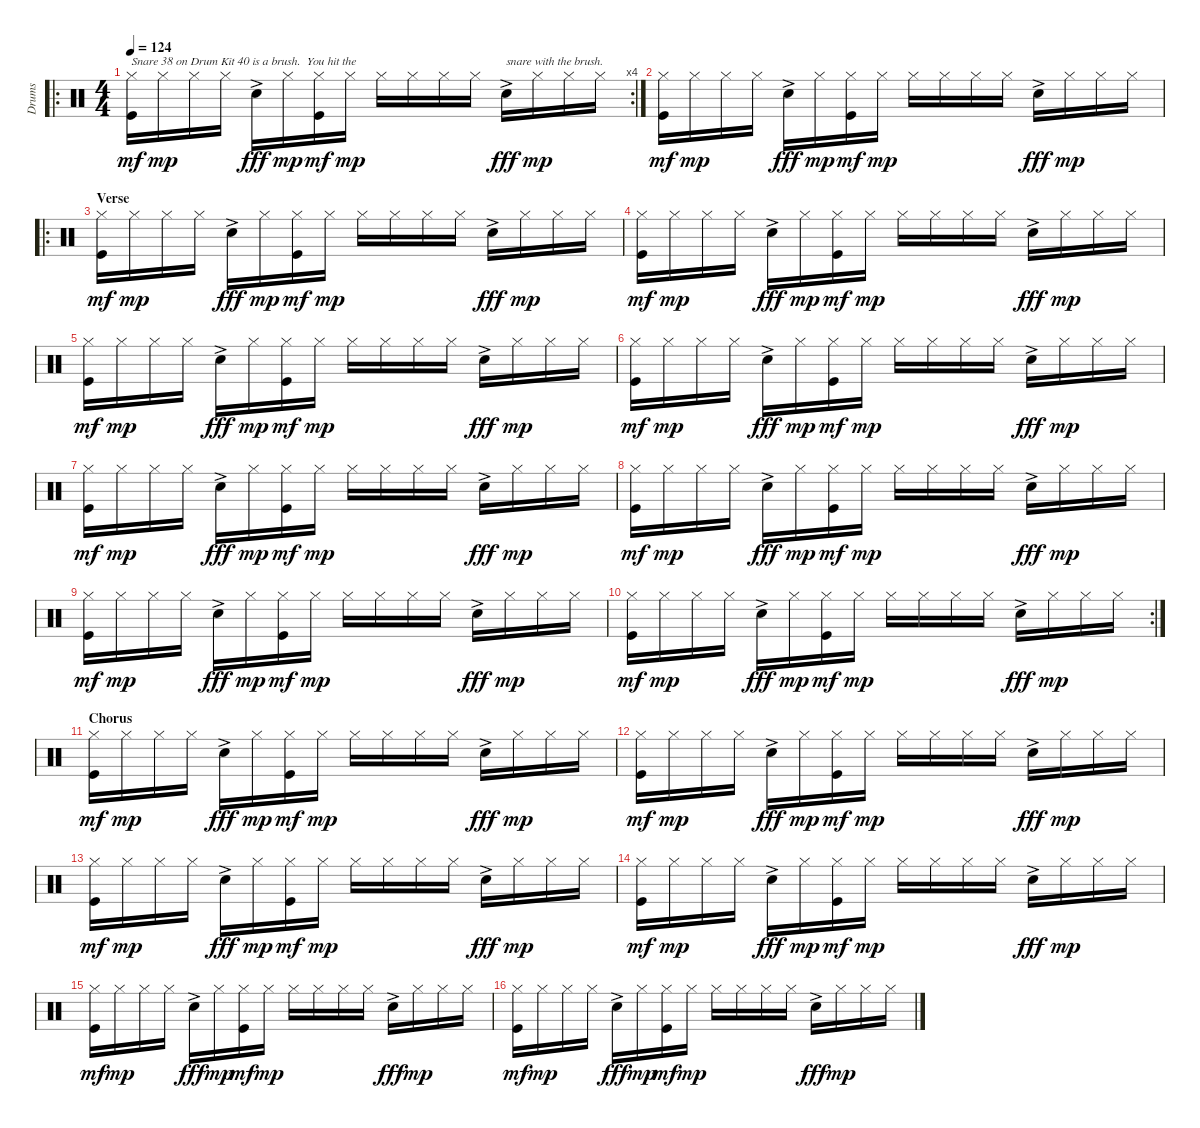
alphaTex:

\track ("Drums" "Drums") {instrument percussion}
\staff {score}
\articulation defaults
\ro
\rc 4
\ts (4 4)
\tempo 124
\clef neutral
\ks c
("Hi-Hat (closed)" "Kick (hit)").16{txt "Snare 38 on Drum Kit 40 is a brush.  You hit the " dy mf} "Hi-Hat (closed)".16{dy mp} "Hi-Hat (closed)".16 "Hi-Hat (closed)".16 "Snare (hit) 2"{ac}.16{dy fff} "Hi-Hat (closed)".16{dy mp} ("Hi-Hat (closed)" "Kick (hit)").16{dy mf} "Hi-Hat (closed)".16{dy mp} "Hi-Hat (closed)".16 "Hi-Hat (closed)".16 "Hi-Hat (closed)".16 "Hi-Hat (closed)".16 "Snare (hit) 2"{ac}.16{txt "snare with the brush." dy fff} "Hi-Hat (closed)".16{dy mp} "Hi-Hat (closed)".16 "Hi-Hat (closed)".16 |
("Hi-Hat (closed)" "Kick (hit)").16{dy mf} "Hi-Hat (closed)".16{dy mp} "Hi-Hat (closed)".16 "Hi-Hat (closed)".16 "Snare (hit) 2"{ac}.16{dy fff} "Hi-Hat (closed)".16{dy mp} ("Hi-Hat (closed)" "Kick (hit)").16{dy mf} "Hi-Hat (closed)".16{dy mp} "Hi-Hat (closed)".16 "Hi-Hat (closed)".16 "Hi-Hat (closed)".16 "Hi-Hat (closed)".16 "Snare (hit) 2"{ac}.16{dy fff} "Hi-Hat (closed)".16{dy mp} "Hi-Hat (closed)".16 "Hi-Hat (closed)".16 |
\ro
\section ("" "Verse")
("Hi-Hat (closed)" "Kick (hit)").16{dy mf} "Hi-Hat (closed)".16{dy mp} "Hi-Hat (closed)".16 "Hi-Hat (closed)".16 "Snare (hit) 2"{ac}.16{dy fff} "Hi-Hat (closed)".16{dy mp} ("Hi-Hat (closed)" "Kick (hit)").16{dy mf} "Hi-Hat (closed)".16{dy mp} "Hi-Hat (closed)".16 "Hi-Hat (closed)".16 "Hi-Hat (closed)".16 "Hi-Hat (closed)".16 "Snare (hit) 2"{ac}.16{dy fff} "Hi-Hat (closed)".16{dy mp} "Hi-Hat (closed)".16 "Hi-Hat (closed)".16 |
("Hi-Hat (closed)" "Kick (hit)").16{dy mf} "Hi-Hat (closed)".16{dy mp} "Hi-Hat (closed)".16 "Hi-Hat (closed)".16 "Snare (hit) 2"{ac}.16{dy fff} "Hi-Hat (closed)".16{dy mp} ("Hi-Hat (closed)" "Kick (hit)").16{dy mf} "Hi-Hat (closed)".16{dy mp} "Hi-Hat (closed)".16 "Hi-Hat (closed)".16 "Hi-Hat (closed)".16 "Hi-Hat (closed)".16 "Snare (hit) 2"{ac}.16{dy fff} "Hi-Hat (closed)".16{dy mp} "Hi-Hat (closed)".16 "Hi-Hat (closed)".16 |
("Hi-Hat (closed)" "Kick (hit)").16{dy mf} "Hi-Hat (closed)".16{dy mp} "Hi-Hat (closed)".16 "Hi-Hat (closed)".16 "Snare (hit) 2"{ac}.16{dy fff} "Hi-Hat (closed)".16{dy mp} ("Hi-Hat (closed)" "Kick (hit)").16{dy mf} "Hi-Hat (closed)".16{dy mp} "Hi-Hat (closed)".16 "Hi-Hat (closed)".16 "Hi-Hat (closed)".16 "Hi-Hat (closed)".16 "Snare (hit) 2"{ac}.16{dy fff} "Hi-Hat (closed)".16{dy mp} "Hi-Hat (closed)".16 "Hi-Hat (closed)".16 |
("Hi-Hat (closed)" "Kick (hit)").16{dy mf} "Hi-Hat (closed)".16{dy mp} "Hi-Hat (closed)".16 "Hi-Hat (closed)".16 "Snare (hit) 2"{ac}.16{dy fff} "Hi-Hat (closed)".16{dy mp} ("Hi-Hat (closed)" "Kick (hit)").16{dy mf} "Hi-Hat (closed)".16{dy mp} "Hi-Hat (closed)".16 "Hi-Hat (closed)".16 "Hi-Hat (closed)".16 "Hi-Hat (closed)".16 "Snare (hit) 2"{ac}.16{dy fff} "Hi-Hat (closed)".16{dy mp} "Hi-Hat (closed)".16 "Hi-Hat (closed)".16 |
("Hi-Hat (closed)" "Kick (hit)").16{dy mf} "Hi-Hat (closed)".16{dy mp} "Hi-Hat (closed)".16 "Hi-Hat (closed)".16 "Snare (hit) 2"{ac}.16{dy fff} "Hi-Hat (closed)".16{dy mp} ("Hi-Hat (closed)" "Kick (hit)").16{dy mf} "Hi-Hat (closed)".16{dy mp} "Hi-Hat (closed)".16 "Hi-Hat (closed)".16 "Hi-Hat (closed)".16 "Hi-Hat (closed)".16 "Snare (hit) 2"{ac}.16{dy fff} "Hi-Hat (closed)".16{dy mp} "Hi-Hat (closed)".16 "Hi-Hat (closed)".16 |
("Hi-Hat (closed)" "Kick (hit)").16{dy mf} "Hi-Hat (closed)".16{dy mp} "Hi-Hat (closed)".16 "Hi-Hat (closed)".16 "Snare (hit) 2"{ac}.16{dy fff} "Hi-Hat (closed)".16{dy mp} ("Hi-Hat (closed)" "Kick (hit)").16{dy mf} "Hi-Hat (closed)".16{dy mp} "Hi-Hat (closed)".16 "Hi-Hat (closed)".16 "Hi-Hat (closed)".16 "Hi-Hat (closed)".16 "Snare (hit) 2"{ac}.16{dy fff} "Hi-Hat (closed)".16{dy mp} "Hi-Hat (closed)".16 "Hi-Hat (closed)".16 |
("Hi-Hat (closed)" "Kick (hit)").16{dy mf} "Hi-Hat (closed)".16{dy mp} "Hi-Hat (closed)".16 "Hi-Hat (closed)".16 "Snare (hit) 2"{ac}.16{dy fff} "Hi-Hat (closed)".16{dy mp} ("Hi-Hat (closed)" "Kick (hit)").16{dy mf} "Hi-Hat (closed)".16{dy mp} "Hi-Hat (closed)".16 "Hi-Hat (closed)".16 "Hi-Hat (closed)".16 "Hi-Hat (closed)".16 "Snare (hit) 2"{ac}.16{dy fff} "Hi-Hat (closed)".16{dy mp} "Hi-Hat (closed)".16 "Hi-Hat (closed)".16 |
\rc 2
("Hi-Hat (closed)" "Kick (hit)").16{dy mf} "Hi-Hat (closed)".16{dy mp} "Hi-Hat (closed)".16 "Hi-Hat (closed)".16 "Snare (hit) 2"{ac}.16{dy fff} "Hi-Hat (closed)".16{dy mp} ("Hi-Hat (closed)" "Kick (hit)").16{dy mf} "Hi-Hat (closed)".16{dy mp} "Hi-Hat (closed)".16 "Hi-Hat (closed)".16 "Hi-Hat (closed)".16 "Hi-Hat (closed)".16 "Snare (hit) 2"{ac}.16{dy fff} "Hi-Hat (closed)".16{dy mp} "Hi-Hat (closed)".16 "Hi-Hat (closed)".16 |
\section ("" "Chorus")
("Hi-Hat (closed)" "Kick (hit)").16{dy mf} "Hi-Hat (closed)".16{dy mp} "Hi-Hat (closed)".16 "Hi-Hat (closed)".16 "Snare (hit) 2"{ac}.16{dy fff} "Hi-Hat (closed)".16{dy mp} ("Hi-Hat (closed)" "Kick (hit)").16{dy mf} "Hi-Hat (closed)".16{dy mp} "Hi-Hat (closed)".16 "Hi-Hat (closed)".16 "Hi-Hat (closed)".16 "Hi-Hat (closed)".16 "Snare (hit) 2"{ac}.16{dy fff} "Hi-Hat (closed)".16{dy mp} "Hi-Hat (closed)".16 "Hi-Hat (closed)".16 |
("Hi-Hat (closed)" "Kick (hit)").16{dy mf} "Hi-Hat (closed)".16{dy mp} "Hi-Hat (closed)".16 "Hi-Hat (closed)".16 "Snare (hit) 2"{ac}.16{dy fff} "Hi-Hat (closed)".16{dy mp} ("Hi-Hat (closed)" "Kick (hit)").16{dy mf} "Hi-Hat (closed)".16{dy mp} "Hi-Hat (closed)".16 "Hi-Hat (closed)".16 "Hi-Hat (closed)".16 "Hi-Hat (closed)".16 "Snare (hit) 2"{ac}.16{dy fff} "Hi-Hat (closed)".16{dy mp} "Hi-Hat (closed)".16 "Hi-Hat (closed)".16 |
("Hi-Hat (closed)" "Kick (hit)").16{dy mf} "Hi-Hat (closed)".16{dy mp} "Hi-Hat (closed)".16 "Hi-Hat (closed)".16 "Snare (hit) 2"{ac}.16{dy fff} "Hi-Hat (closed)".16{dy mp} ("Hi-Hat (closed)" "Kick (hit)").16{dy mf} "Hi-Hat (closed)".16{dy mp} "Hi-Hat (closed)".16 "Hi-Hat (closed)".16 "Hi-Hat (closed)".16 "Hi-Hat (closed)".16 "Snare (hit) 2"{ac}.16{dy fff} "Hi-Hat (closed)".16{dy mp} "Hi-Hat (closed)".16 "Hi-Hat (closed)".16 |
("Hi-Hat (closed)" "Kick (hit)").16{dy mf} "Hi-Hat (closed)".16{dy mp} "Hi-Hat (closed)".16 "Hi-Hat (closed)".16 "Snare (hit) 2"{ac}.16{dy fff} "Hi-Hat (closed)".16{dy mp} ("Hi-Hat (closed)" "Kick (hit)").16{dy mf} "Hi-Hat (closed)".16{dy mp} "Hi-Hat (closed)".16 "Hi-Hat (closed)".16 "Hi-Hat (closed)".16 "Hi-Hat (closed)".16 "Snare (hit) 2"{ac}.16{dy fff} "Hi-Hat (closed)".16{dy mp} "Hi-Hat (closed)".16 "Hi-Hat (closed)".16 |
("Hi-Hat (closed)" "Kick (hit)").16{dy mf} "Hi-Hat (closed)".16{dy mp} "Hi-Hat (closed)".16 "Hi-Hat (closed)".16 "Snare (hit) 2"{ac}.16{dy fff} "Hi-Hat (closed)".16{dy mp} ("Hi-Hat (closed)" "Kick (hit)").16{dy mf} "Hi-Hat (closed)".16{dy mp} "Hi-Hat (closed)".16 "Hi-Hat (closed)".16 "Hi-Hat (closed)".16 "Hi-Hat (closed)".16 "Snare (hit) 2"{ac}.16{dy fff} "Hi-Hat (closed)".16{dy mp} "Hi-Hat (closed)".16 "Hi-Hat (closed)".16 |
("Hi-Hat (closed)" "Kick (hit)").16{dy mf} "Hi-Hat (closed)".16{dy mp} "Hi-Hat (closed)".16 "Hi-Hat (closed)".16 "Snare (hit) 2"{ac}.16{dy fff} "Hi-Hat (closed)".16{dy mp} ("Hi-Hat (closed)" "Kick (hit)").16{dy mf} "Hi-Hat (closed)".16{dy mp} "Hi-Hat (closed)".16 "Hi-Hat (closed)".16 "Hi-Hat (closed)".16 "Hi-Hat (closed)".16 "Snare (hit) 2"{ac}.16{dy fff} "Hi-Hat (closed)".16{dy mp} "Hi-Hat (closed)".16 "Hi-Hat (closed)".16
